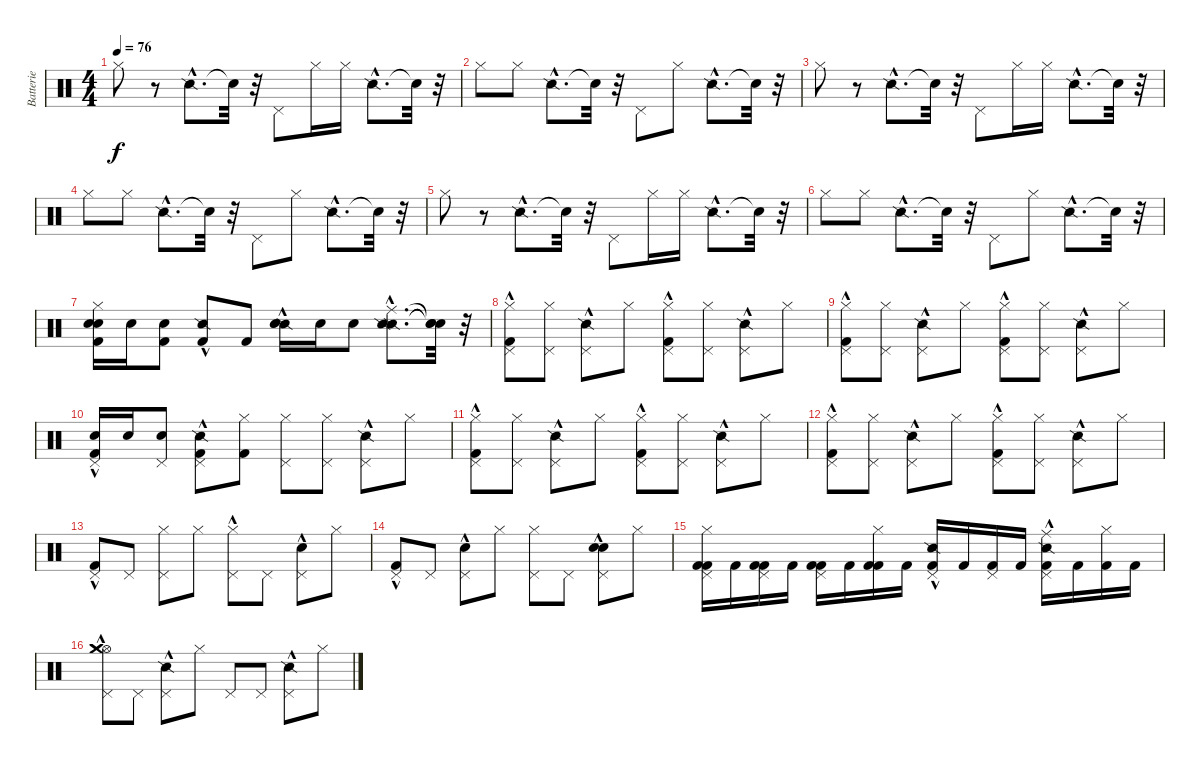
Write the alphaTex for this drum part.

\track ("Batterie" "Batterie") {instrument percussion}
\staff {score}
\articulation defaults
\ts (4 4)
\tempo 76
\clef neutral
\ks c "Hi-Hat (closed)".8{dy f}
r.8 "Snare (side stick) 2"{hac}.8{d} "Snare (hit)"{t}.32 r.32 "Pedal Hi-Hat (hit)".8 "Hi-Hat (closed)".16 "Hi-Hat (closed)".16 "Snare (side stick) 2"{hac}.8{d} "Snare (hit)"{t}.32 r.32 |
"Hi-Hat (closed)".8 "Hi-Hat (closed)".8 "Snare (side stick) 2"{hac}.8{d} "Snare (hit)"{t}.32 r.32 "Pedal Hi-Hat (hit)".8 "Hi-Hat (closed)".8 "Snare (side stick) 2"{hac}.8{d} "Snare (hit)"{t}.32 r.32 |
"Hi-Hat (closed)".8 r.8 "Snare (side stick) 2"{hac}.8{d} "Snare (hit)"{t}.32 r.32 "Pedal Hi-Hat (hit)".8 "Hi-Hat (closed)".16 "Hi-Hat (closed)".16 "Snare (side stick) 2"{hac}.8{d} "Snare (hit)"{t}.32 r.32 |
"Hi-Hat (closed)".8 "Hi-Hat (closed)".8 "Snare (side stick) 2"{hac}.8{d} "Snare (hit)"{t}.32 r.32 "Pedal Hi-Hat (hit)".8 "Hi-Hat (closed)".8 "Snare (side stick) 2"{hac}.8{d} "Snare (hit)"{t}.32 r.32 |
"Hi-Hat (closed)".8 r.8 "Snare (side stick) 2"{hac}.8{d} "Snare (hit)"{t}.32 r.32 "Pedal Hi-Hat (hit)".8 "Hi-Hat (closed)".16 "Hi-Hat (closed)".16 "Snare (side stick) 2"{hac}.8{d} "Snare (hit)"{t}.32 r.32 |
"Hi-Hat (closed)".8 "Hi-Hat (closed)".8 "Snare (side stick) 2"{hac}.8{d} "Snare (hit)"{t}.32 r.32 "Pedal Hi-Hat (hit)".8 "Hi-Hat (closed)".8 "Snare (side stick) 2"{hac}.8{d} "Snare (hit)"{t}.32 r.32 |
("Kick (hit) 2" "Hi-Hat (closed)" "Snare (hit) 2" "Electric Snare (hit)").16 "Electric Snare (hit)".16 ("Kick (hit) 2" "Electric Snare (hit)").8 ("Kick (hit) 2" "Snare (side stick) 2"{hac}).8 "Kick (hit) 2".8 ("Snare (side stick) 2"{hac} "Snare (hit) 2" "Electric Snare (hit)").16 "Electric Snare (hit)".16 "Electric Snare (hit)".8 ("Snare (side stick) 2"{hac} "Ride (middle)"{hac} "Snare (side stick) 2"{hac}).8{d} ("Snare (hit)"{t} "Snare (hit)"{t} "Snare (hit)"{t}).32 r.32 |
("Kick (hit) 2"{hac} "Hi-Hat (closed)" "Pedal Hi-Hat (hit)").8 ("Hi-Hat (closed)" "Pedal Hi-Hat (hit)").8 ("Snare (side stick) 2"{hac} "Pedal Hi-Hat (hit)").8 "Hi-Hat (closed)".8 ("Kick (hit) 2"{hac} "Hi-Hat (closed)" "Pedal Hi-Hat (hit)").8 ("Hi-Hat (closed)" "Pedal Hi-Hat (hit)").8 ("Snare (side stick) 2"{hac} "Pedal Hi-Hat (hit)").8 "Hi-Hat (closed)".8 |
("Kick (hit) 2"{hac} "Hi-Hat (closed)" "Pedal Hi-Hat (hit)").8 ("Hi-Hat (closed)" "Pedal Hi-Hat (hit)").8 ("Snare (side stick) 2"{hac} "Pedal Hi-Hat (hit)").8 "Hi-Hat (closed)".8 ("Kick (hit) 2"{hac} "Hi-Hat (closed)" "Pedal Hi-Hat (hit)").8 ("Hi-Hat (closed)" "Pedal Hi-Hat (hit)").8 ("Snare (side stick) 2"{hac} "Pedal Hi-Hat (hit)").8 "Hi-Hat (closed)".8 |
("Kick (hit) 2"{hac} "Snare (hit) 2" "Pedal Hi-Hat (hit)").16 "Snare (hit) 2".16 ("Electric Snare (hit)" "Pedal Hi-Hat (hit)").8 ("Snare (side stick) 2"{hac} "Kick (hit) 2" "Pedal Hi-Hat (hit)").8 ("Kick (hit) 2" "Hi-Hat (closed)").8 ("Hi-Hat (closed)" "Pedal Hi-Hat (hit)").8 ("Hi-Hat (closed)" "Pedal Hi-Hat (hit)").8 ("Snare (side stick) 2"{hac} "Pedal Hi-Hat (hit)").8 "Hi-Hat (closed)".8 |
("Kick (hit) 2"{hac} "Hi-Hat (closed)" "Pedal Hi-Hat (hit)").8 ("Hi-Hat (closed)" "Pedal Hi-Hat (hit)").8 ("Snare (side stick) 2"{hac} "Pedal Hi-Hat (hit)").8 "Hi-Hat (closed)".8 ("Kick (hit) 2"{hac} "Hi-Hat (closed)" "Pedal Hi-Hat (hit)").8 ("Hi-Hat (closed)" "Pedal Hi-Hat (hit)").8 ("Snare (side stick) 2"{hac} "Pedal Hi-Hat (hit)").8 "Hi-Hat (closed)".8 |
("Kick (hit) 2"{hac} "Hi-Hat (closed)" "Pedal Hi-Hat (hit)").8 ("Hi-Hat (closed)" "Pedal Hi-Hat (hit)").8 ("Snare (side stick) 2"{hac} "Pedal Hi-Hat (hit)").8 "Hi-Hat (closed)".8 ("Kick (hit) 2"{hac} "Hi-Hat (closed)" "Pedal Hi-Hat (hit)").8 ("Hi-Hat (closed)" "Pedal Hi-Hat (hit)").8 ("Snare (side stick) 2"{hac} "Pedal Hi-Hat (hit)").8 "Hi-Hat (closed)".8 |
("Kick (hit) 2"{hac} "Pedal Hi-Hat (hit)").8 "Pedal Hi-Hat (hit)".8 ("Hi-Hat (closed)" "Pedal Hi-Hat (hit)").8 "Hi-Hat (closed)".8 ("Hi-Hat (closed)"{hac} "Pedal Hi-Hat (hit)").8 "Pedal Hi-Hat (hit)".8 ("Snare (hit) 2"{hac} "Pedal Hi-Hat (hit)").8 "Hi-Hat (closed)".8 |
("Kick (hit) 2"{hac} "Pedal Hi-Hat (hit)").8 "Pedal Hi-Hat (hit)".8 ("Snare (hit) 2"{hac} "Pedal Hi-Hat (hit)").8 "Hi-Hat (closed)".8 ("Hi-Hat (closed)" "Pedal Hi-Hat (hit)").8 "Pedal Hi-Hat (hit)".8 ("Snare (hit) 2"{hac} "Electric Snare (hit)"{hac} "Pedal Hi-Hat (hit)").8 "Hi-Hat (closed)".8 |
("Kick (hit) 2" "Hi-Hat (closed)" "Pedal Hi-Hat (hit)" "Kick (hit) 2").16 "Kick (hit) 2".16 ("Kick (hit) 2" "Pedal Hi-Hat (hit)" "Kick (hit) 2").16 "Kick (hit) 2".16 ("Kick (hit) 2" "Pedal Hi-Hat (hit)" "Kick (hit) 2").16 "Kick (hit) 2".16 ("Kick (hit) 2" "Hi-Hat (closed)" "Kick (hit) 2").16 "Kick (hit) 2".16 ("Snare (side stick) 2"{hac} "Pedal Hi-Hat (hit)" "Kick (hit) 2").16 "Kick (hit) 2".16 ("Pedal Hi-Hat (hit)" "Kick (hit) 2").16 "Kick (hit) 2".16 ("Snare (side stick) 2"{hac} "Ride (middle)"{hac} "Pedal Hi-Hat (hit)" "Kick (hit) 2").16 "Kick (hit) 2".16 ("Hi-Hat (closed)" "Kick (hit) 2").16 "Kick (hit) 2".16 |
("Hi-Hat (open)"{hac} "Crash medium (hit)"{hac} "Pedal Hi-Hat (hit)" "Crash medium (hit)"{hac}).8 "Pedal Hi-Hat (hit)".8 ("Snare (side stick) 2"{hac} "Pedal Hi-Hat (hit)").8 "Hi-Hat (closed)".8 "Pedal Hi-Hat (hit)".8 "Pedal Hi-Hat (hit)".8 ("Snare (side stick) 2"{hac} "Pedal Hi-Hat (hit)").8 "Hi-Hat (closed)".8
